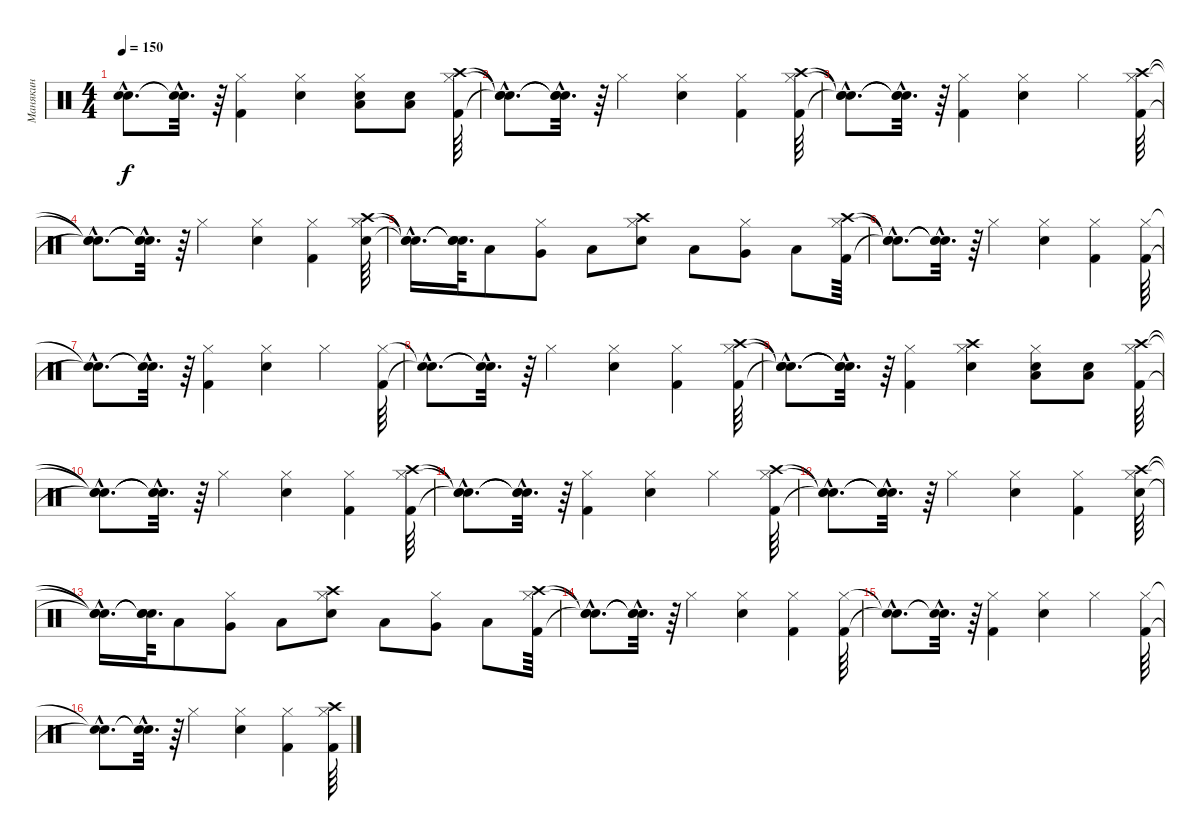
\track ("Манякин" "Манякин") {instrument percussion}
\staff {score}
\articulation defaults
\ts (4 4)
\tempo 150
\clef neutral
\ks c
("Snare (hit)"{hac t} "Snare (hit)"{hac t}).8{d dy f} ("Snare (hit)"{hac t} "Snare (hit)"{hac t}).32{d} r.64 ("Hi-Hat (closed)" "Kick (hit) 2").4 ("Hi-Hat (closed)" "Snare (hit) 2").4 ("Low Floor Tom (hit)" "Snare (hit) 2" "Hi-Hat (closed)").8 ("Low Floor Tom (hit)" "Snare (hit) 2").8 ("Crash high (hit)" "Hi-Hat (closed)" "Kick (hit) 2").64 |
("Snare (hit)"{hac t} "Snare (hit)"{hac t} "Snare (hit)"{hac t}).8{d} ("Snare (hit)"{hac t} "Snare (hit)"{hac t} "Snare (hit)"{hac t}).32{d} r.64 "Hi-Hat (closed)".4 ("Hi-Hat (closed)" "Snare (hit) 2").4 ("Hi-Hat (closed)" "Kick (hit) 2").4 ("Crash high (hit)" "Hi-Hat (closed)" "Kick (hit) 2").64 |
("Snare (hit)"{hac t} "Snare (hit)"{hac t} "Snare (hit)"{hac t}).8{d} ("Snare (hit)"{hac t} "Snare (hit)"{hac t} "Snare (hit)"{hac t}).32{d} r.64 ("Hi-Hat (closed)" "Kick (hit) 2").4 ("Hi-Hat (closed)" "Snare (hit) 2").4 "Hi-Hat (closed)".4 ("Crash high (hit)" "Hi-Hat (closed)" "Kick (hit) 2").64 |
("Snare (hit)"{hac t} "Snare (hit)"{hac t} "Snare (hit)"{hac t}).8{d} ("Snare (hit)"{hac t} "Snare (hit)"{hac t} "Snare (hit)"{hac t}).32{d} r.64 "Hi-Hat (closed)".4 ("Hi-Hat (closed)" "Snare (hit) 2").4 ("Hi-Hat (closed)" "Kick (hit) 2").4 ("Crash high (hit)" "Snare (hit) 2" "Hi-Hat (closed)").64 |
("Snare (hit)"{hac t} "Snare (hit)"{hac t} "Snare (hit)"{hac t}).16{d} ("Snare (hit)"{t} "Snare (hit)"{t} "Snare (hit)"{t}).64{d} "Low Tom (hit)".8 ("Hi-Hat (closed)" "Very Low Tom (hit)").8 "Low Floor Tom (hit)".8 ("Crash high (hit)" "Snare (hit) 2" "Hi-Hat (closed)").8 "Low Floor Tom (hit)".8 ("Very Low Tom (hit)" "Hi-Hat (closed)").8 "Low Tom (hit)".8 ("Crash high (hit)" "Hi-Hat (closed)" "Kick (hit) 2").64 |
("Snare (hit)"{hac t} "Snare (hit)"{hac t} "Snare (hit)"{hac t}).8{d} ("Snare (hit)"{hac t} "Snare (hit)"{hac t} "Snare (hit)"{hac t}).32{d} r.64 "Hi-Hat (closed)".4 ("Hi-Hat (closed)" "Snare (hit) 2").4 ("Hi-Hat (closed)" "Kick (hit) 2").4 ("Hi-Hat (closed)" "Kick (hit) 2").64 |
("Snare (hit)"{hac t} "Snare (hit)"{hac t}).8{d} ("Snare (hit)"{hac t} "Snare (hit)"{hac t}).32{d} r.64 ("Hi-Hat (closed)" "Kick (hit) 2").4 ("Hi-Hat (closed)" "Snare (hit) 2").4 "Hi-Hat (closed)".4 ("Hi-Hat (closed)" "Kick (hit) 2").64 |
("Snare (hit)"{hac t} "Snare (hit)"{hac t}).8{d} ("Snare (hit)"{hac t} "Snare (hit)"{hac t}).32{d} r.64 "Hi-Hat (closed)".4 ("Hi-Hat (closed)" "Snare (hit) 2").4 ("Hi-Hat (closed)" "Kick (hit) 2").4 ("Crash high (hit)" "Hi-Hat (closed)" "Kick (hit) 2").64 |
("Snare (hit)"{hac t} "Snare (hit)"{hac t} "Snare (hit)"{hac t}).8{d} ("Snare (hit)"{hac t} "Snare (hit)"{hac t} "Snare (hit)"{hac t}).32{d} r.64 ("Hi-Hat (closed)" "Kick (hit) 2").4 ("Crash high (hit)" "Hi-Hat (closed)" "Snare (hit) 2").4 ("Low Floor Tom (hit)" "Snare (hit) 2" "Hi-Hat (closed)").8 ("Low Floor Tom (hit)" "Snare (hit) 2").8 ("Crash high (hit)" "Hi-Hat (closed)" "Kick (hit) 2").64 |
("Snare (hit)"{hac t} "Snare (hit)"{hac t} "Snare (hit)"{hac t}).8{d} ("Snare (hit)"{hac t} "Snare (hit)"{hac t} "Snare (hit)"{hac t}).32{d} r.64 "Hi-Hat (closed)".4 ("Hi-Hat (closed)" "Snare (hit) 2").4 ("Hi-Hat (closed)" "Kick (hit) 2").4 ("Crash high (hit)" "Hi-Hat (closed)" "Kick (hit) 2").64 |
("Snare (hit)"{hac t} "Snare (hit)"{hac t} "Snare (hit)"{hac t}).8{d} ("Snare (hit)"{hac t} "Snare (hit)"{hac t} "Snare (hit)"{hac t}).32{d} r.64 ("Hi-Hat (closed)" "Kick (hit) 2").4 ("Hi-Hat (closed)" "Snare (hit) 2").4 "Hi-Hat (closed)".4 ("Crash high (hit)" "Hi-Hat (closed)" "Kick (hit) 2").64 |
("Snare (hit)"{hac t} "Snare (hit)"{hac t} "Snare (hit)"{hac t}).8{d} ("Snare (hit)"{hac t} "Snare (hit)"{hac t} "Snare (hit)"{hac t}).32{d} r.64 "Hi-Hat (closed)".4 ("Hi-Hat (closed)" "Snare (hit) 2").4 ("Hi-Hat (closed)" "Kick (hit) 2").4 ("Crash high (hit)" "Snare (hit) 2" "Hi-Hat (closed)").64 |
("Snare (hit)"{hac t} "Snare (hit)"{hac t} "Snare (hit)"{hac t}).16{d} ("Snare (hit)"{t} "Snare (hit)"{t} "Snare (hit)"{t}).64{d} "Low Tom (hit)".8 ("Hi-Hat (closed)" "Very Low Tom (hit)").8 "Low Floor Tom (hit)".8 ("Crash high (hit)" "Snare (hit) 2" "Hi-Hat (closed)").8 "Low Floor Tom (hit)".8 ("Very Low Tom (hit)" "Hi-Hat (closed)").8 "Low Tom (hit)".8 ("Crash high (hit)" "Hi-Hat (closed)" "Kick (hit) 2").64 |
("Snare (hit)"{hac t} "Snare (hit)"{hac t} "Snare (hit)"{hac t}).8{d} ("Snare (hit)"{hac t} "Snare (hit)"{hac t} "Snare (hit)"{hac t}).32{d} r.64 "Hi-Hat (closed)".4 ("Hi-Hat (closed)" "Snare (hit) 2").4 ("Hi-Hat (closed)" "Kick (hit) 2").4 ("Hi-Hat (closed)" "Kick (hit) 2").64 |
("Snare (hit)"{hac t} "Snare (hit)"{hac t}).8{d} ("Snare (hit)"{hac t} "Snare (hit)"{hac t}).32{d} r.64 ("Hi-Hat (closed)" "Kick (hit) 2").4 ("Hi-Hat (closed)" "Snare (hit) 2").4 "Hi-Hat (closed)".4 ("Hi-Hat (closed)" "Kick (hit) 2").64 |
("Snare (hit)"{hac t} "Snare (hit)"{hac t}).8{d} ("Snare (hit)"{hac t} "Snare (hit)"{hac t}).32{d} r.64 "Hi-Hat (closed)".4 ("Hi-Hat (closed)" "Snare (hit) 2").4 ("Hi-Hat (closed)" "Kick (hit) 2").4 ("Crash high (hit)" "Hi-Hat (closed)" "Kick (hit) 2").64
